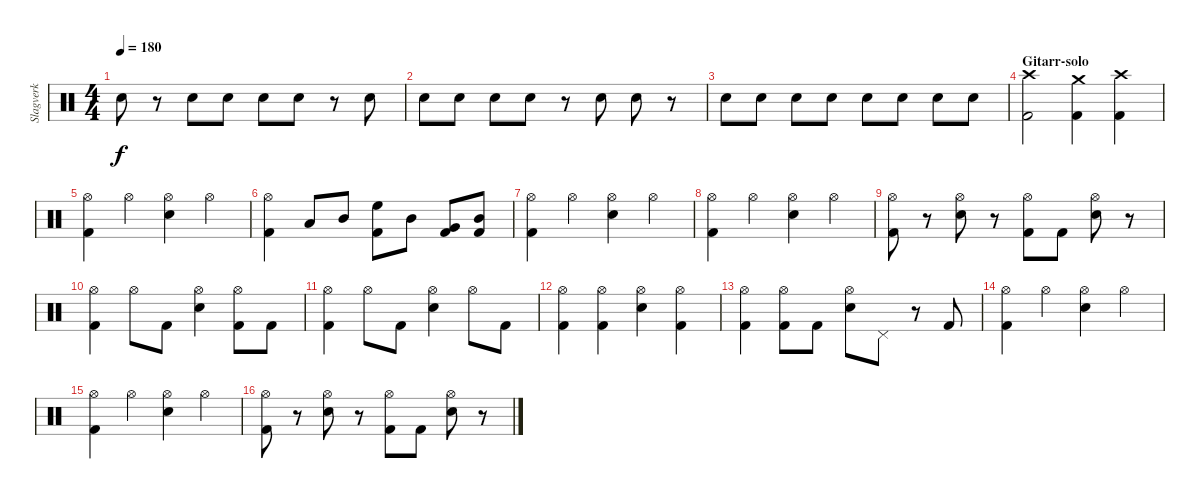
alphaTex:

\track ("Slagverk" "Slagverk") {instrument percussion}
\staff {score}
\articulation defaults
\ts (4 4)
\tempo 180
\clef neutral
\ks c "Snare (hit) 2".8{dy f}
r.8 "Snare (hit) 2".8 "Snare (hit) 2".8 "Snare (hit) 2".8 "Snare (hit) 2".8 r.8 "Snare (hit) 2".8 |
"Snare (hit) 2".8 "Snare (hit) 2".8 "Snare (hit) 2".8 "Snare (hit) 2".8 r.8 "Snare (hit) 2".8 "Snare (hit) 2".8 r.8 |
"Snare (hit) 2".8 "Snare (hit) 2".8 "Snare (hit) 2".8 "Snare (hit) 2".8 "Snare (hit) 2".8 "Snare (hit) 2".8 "Snare (hit) 2".8 "Snare (hit) 2".8 |
\section ("" "Gitarr-solo")
("Kick (hit) 2" "Crash high (hit)").2 ("Kick (hit) 2" "Crash medium (hit)").4 ("Kick (hit) 2" "Crash high (hit)").4 |
("Kick (hit) 2" "Hi-Hat (open)").4 "Hi-Hat (open)".4 ("Snare (hit) 2" "Hi-Hat (open)").4 "Hi-Hat (open)".4 |
("Kick (hit) 2" "Hi-Hat (open)").4 "Low Tom (hit)".8 "Mid Tom (hit)".8 ("Kick (hit) 2" "High Floor Tom (hit)").8 "Mid Tom (hit)".8 ("Kick (hit) 2" "Very Low Tom (hit)").8 ("Kick (hit) 2" "Mid Tom (hit)").8 |
("Kick (hit) 2" "Hi-Hat (open)").4 "Hi-Hat (open)".4 ("Snare (hit) 2" "Hi-Hat (open)").4 "Hi-Hat (open)".4 |
("Kick (hit) 2" "Hi-Hat (open)").4 "Hi-Hat (open)".4 ("Snare (hit) 2" "Hi-Hat (open)").4 "Hi-Hat (open)".4 |
("Kick (hit) 2" "Hi-Hat (open)").8 r.8 ("Snare (hit) 2" "Hi-Hat (open)").8 r.8 ("Kick (hit) 2" "Hi-Hat (open)").8 "Kick (hit) 2".8 ("Snare (hit) 2" "Hi-Hat (open)").8 r.8 |
("Kick (hit) 2" "Hi-Hat (open)").4 "Hi-Hat (open)".8 "Kick (hit) 2".8 ("Snare (hit) 2" "Hi-Hat (open)").4 ("Kick (hit) 2" "Hi-Hat (open)").8 "Kick (hit) 2".8 |
("Kick (hit) 2" "Hi-Hat (open)").4 "Hi-Hat (open)".8 "Kick (hit) 2".8 ("Snare (hit) 2" "Hi-Hat (open)").4 "Hi-Hat (open)".8 "Kick (hit) 2".8 |
("Kick (hit) 2" "Hi-Hat (open)").4 ("Kick (hit) 2" "Hi-Hat (open)").4 ("Snare (hit) 2" "Hi-Hat (open)").4 ("Kick (hit) 2" "Hi-Hat (open)").4 |
("Kick (hit) 2" "Hi-Hat (open)").4 ("Kick (hit) 2" "Hi-Hat (open)").8 "Kick (hit) 2".8 ("Snare (hit) 2" "Hi-Hat (open)").8 "Pedal Hi-Hat (hit)".8 r.8 "Kick (hit) 2".8 |
("Kick (hit) 2" "Hi-Hat (open)").4 "Hi-Hat (open)".4 ("Snare (hit) 2" "Hi-Hat (open)").4 "Hi-Hat (open)".4 |
("Kick (hit) 2" "Hi-Hat (open)").4 "Hi-Hat (open)".4 ("Snare (hit) 2" "Hi-Hat (open)").4 "Hi-Hat (open)".4 |
("Kick (hit) 2" "Hi-Hat (open)").8 r.8 ("Snare (hit) 2" "Hi-Hat (open)").8 r.8 ("Kick (hit) 2" "Hi-Hat (open)").8 "Kick (hit) 2".8 ("Snare (hit) 2" "Hi-Hat (open)").8 r.8
